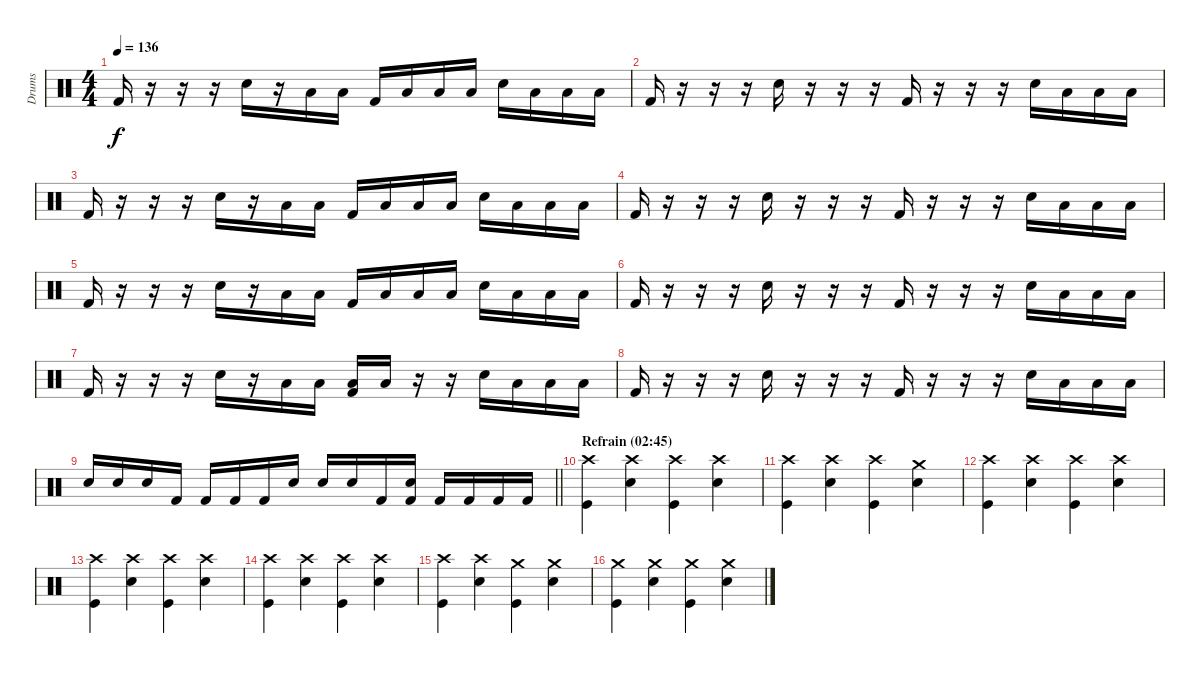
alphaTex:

\track ("Drums" "Drums") {instrument percussion}
\staff {score}
\articulation defaults
\ts (4 4)
\tempo 136
\clef neutral
\ks c "Kick (hit) 2".16{dy f}
r.16 r.16 r.16 "Electric Snare (hit)".16 r.16 "Low Floor Tom (hit)".16 "Low Floor Tom (hit)".16 "Kick (hit) 2".16 "Low Floor Tom (hit)".16 "Low Floor Tom (hit)".16 "Low Floor Tom (hit)".16 "Electric Snare (hit)".16 "Low Floor Tom (hit)".16 "Low Floor Tom (hit)".16 "Low Floor Tom (hit)".16 |
"Kick (hit) 2".16 r.16 r.16 r.16 "Electric Snare (hit)".16 r.16 r.16 r.16 "Kick (hit) 2".16 r.16 r.16 r.16 "Electric Snare (hit)".16 "Low Floor Tom (hit)".16 "Low Floor Tom (hit)".16 "Low Floor Tom (hit)".16 |
"Kick (hit) 2".16 r.16 r.16 r.16 "Electric Snare (hit)".16 r.16 "Low Floor Tom (hit)".16 "Low Floor Tom (hit)".16 "Kick (hit) 2".16 "Low Floor Tom (hit)".16 "Low Floor Tom (hit)".16 "Low Floor Tom (hit)".16 "Electric Snare (hit)".16 "Low Floor Tom (hit)".16 "Low Floor Tom (hit)".16 "Low Floor Tom (hit)".16 |
"Kick (hit) 2".16 r.16 r.16 r.16 "Electric Snare (hit)".16 r.16 r.16 r.16 "Kick (hit) 2".16 r.16 r.16 r.16 "Electric Snare (hit)".16 "Low Floor Tom (hit)".16 "Low Floor Tom (hit)".16 "Low Floor Tom (hit)".16 |
"Kick (hit) 2".16 r.16 r.16 r.16 "Electric Snare (hit)".16 r.16 "Low Floor Tom (hit)".16 "Low Floor Tom (hit)".16 "Kick (hit) 2".16 "Low Floor Tom (hit)".16 "Low Floor Tom (hit)".16 "Low Floor Tom (hit)".16 "Electric Snare (hit)".16 "Low Floor Tom (hit)".16 "Low Floor Tom (hit)".16 "Low Floor Tom (hit)".16 |
"Kick (hit) 2".16 r.16 r.16 r.16 "Electric Snare (hit)".16 r.16 r.16 r.16 "Kick (hit) 2".16 r.16 r.16 r.16 "Electric Snare (hit)".16 "Low Floor Tom (hit)".16 "Low Floor Tom (hit)".16 "Low Floor Tom (hit)".16 |
"Kick (hit) 2".16 r.16 r.16 r.16 "Electric Snare (hit)".16 r.16 "Low Floor Tom (hit)".16 "Low Floor Tom (hit)".16 ("Low Floor Tom (hit)" "Kick (hit) 2").16 "Low Floor Tom (hit)".16 r.16 r.16 "Electric Snare (hit)".16 "Low Floor Tom (hit)".16 "Low Floor Tom (hit)".16 "Low Floor Tom (hit)".16 |
"Kick (hit) 2".16 r.16 r.16 r.16 "Electric Snare (hit)".16 r.16 r.16 r.16 "Kick (hit) 2".16 r.16 r.16 r.16 "Electric Snare (hit)".16 "Low Floor Tom (hit)".16 "Low Floor Tom (hit)".16 "Low Floor Tom (hit)".16 |
\barLineRight lightlight "Electric Snare (hit)".16 "Electric Snare (hit)".16 "Electric Snare (hit)".16 "Kick (hit) 2".16 "Kick (hit) 2".16 "Kick (hit) 2".16 "Kick (hit) 2".16 "Electric Snare (hit)".16 "Electric Snare (hit)".16 "Electric Snare (hit)".16 "Kick (hit) 2".16
("Electric Snare (hit)" "Kick (hit) 2").16 "Kick (hit) 2".16 "Kick (hit) 2".16 "Kick (hit) 2".16 "Kick (hit) 2".16 |
\section ("" "Refrain (02:45)")
("Crash high (hit)" "Kick (hit)").4 ("Crash high (hit)" "Electric Snare (hit)").4 ("Crash high (hit)" "Kick (hit)").4 ("Crash high (hit)" "Electric Snare (hit)").4 |
("Crash high (hit)" "Kick (hit)").4 ("Crash high (hit)" "Electric Snare (hit)").4 ("Crash high (hit)" "Kick (hit)").4 ("Crash medium (hit)" "Electric Snare (hit)").4 |
("Crash high (hit)" "Kick (hit)").4 ("Crash high (hit)" "Electric Snare (hit)").4 ("Crash high (hit)" "Kick (hit)").4 ("Crash high (hit)" "Electric Snare (hit)").4 |
("Crash high (hit)" "Kick (hit)").4 ("Crash high (hit)" "Electric Snare (hit)").4 ("Crash high (hit)" "Kick (hit)").4 ("Crash high (hit)" "Electric Snare (hit)").4 |
("Crash high (hit)" "Kick (hit)").4 ("Crash high (hit)" "Electric Snare (hit)").4 ("Crash high (hit)" "Kick (hit)").4 ("Crash high (hit)" "Electric Snare (hit)").4 |
("Crash high (hit)" "Kick (hit)").4 ("Crash high (hit)" "Electric Snare (hit)").4 ("Crash medium (hit)" "Kick (hit)").4 ("Crash medium (hit)" "Electric Snare (hit)").4 |
("Crash medium (hit)" "Kick (hit)").4 ("Crash medium (hit)" "Electric Snare (hit)").4 ("Crash medium (hit)" "Kick (hit)").4 ("Crash medium (hit)" "Electric Snare (hit)").4
